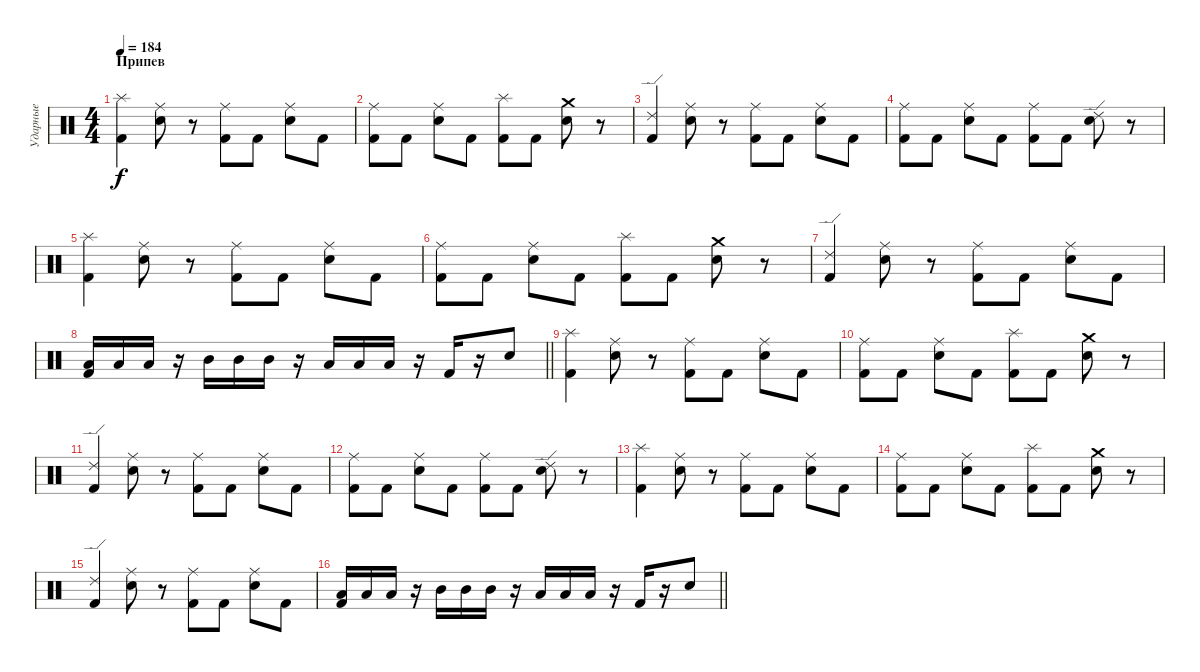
\track ("Ударные" "Ударные") {instrument percussion}
\staff {score}
\articulation defaults
\ts (4 4)
\section ("" "Припев")
\tempo 184
\clef neutral
\ks c
("Splash (hit)" "Kick (hit) 2").4{dy f} ("Ride (middle)" "Snare (hit) 2").8 r.8 ("Ride (middle)" "Kick (hit) 2").8 "Kick (hit) 2".8 ("Ride (middle)" "Snare (hit) 2").8 "Kick (hit) 2".8 |
("Ride (middle)" "Kick (hit) 2").8 "Kick (hit) 2".8 ("Ride (middle)" "Snare (hit) 2").8 "Kick (hit) 2".8 ("Splash (hit)" "Kick (hit) 2").8 "Kick (hit) 2".8 ("Crash medium (hit)" "Snare (hit) 2").8 r.8 |
("Ride (edge) 2" "Kick (hit) 2").4 ("Ride (middle)" "Snare (hit) 2").8 r.8 ("Ride (middle)" "Kick (hit) 2").8 "Kick (hit) 2".8 ("Ride (middle)" "Snare (hit) 2").8 "Kick (hit) 2".8 |
("Ride (middle)" "Kick (hit) 2").8 "Kick (hit) 2".8 ("Ride (middle)" "Snare (hit) 2").8 "Kick (hit) 2".8 ("Ride (middle)" "Kick (hit) 2").8 "Kick (hit) 2".8 ("Ride (edge) 2" "Snare (hit) 2").8 r.8 |
("Splash (hit)" "Kick (hit) 2").4 ("Ride (middle)" "Snare (hit) 2").8 r.8 ("Ride (middle)" "Kick (hit) 2").8 "Kick (hit) 2".8 ("Ride (middle)" "Snare (hit) 2").8 "Kick (hit) 2".8 |
("Ride (middle)" "Kick (hit) 2").8 "Kick (hit) 2".8 ("Ride (middle)" "Snare (hit) 2").8 "Kick (hit) 2".8 ("Splash (hit)" "Kick (hit) 2").8 "Kick (hit) 2".8 ("Crash medium (hit)" "Snare (hit) 2").8 r.8 |
("Ride (edge) 2" "Kick (hit) 2").4 ("Ride (middle)" "Snare (hit) 2").8 r.8 ("Ride (middle)" "Kick (hit) 2").8 "Kick (hit) 2".8 ("Ride (middle)" "Snare (hit) 2").8 "Kick (hit) 2".8 |
\barLineRight lightlight
("Low Floor Tom (hit)" "Kick (hit) 2").16 "Low Floor Tom (hit)".16 "Low Floor Tom (hit)".16 r.16 "Mid Tom (hit)".16 "Mid Tom (hit)".16 "Mid Tom (hit)".16 r.16 "Low Tom (hit)".16 "Low Tom (hit)".16 "Low Tom (hit)".16 r.16 "Kick (hit) 2".16 r.16 "Snare (hit) 2".8 |
("Splash (hit)" "Kick (hit) 2").4 ("Ride (middle)" "Snare (hit) 2").8 r.8 ("Ride (middle)" "Kick (hit) 2").8 "Kick (hit) 2".8 ("Ride (middle)" "Snare (hit) 2").8 "Kick (hit) 2".8 |
("Ride (middle)" "Kick (hit) 2").8 "Kick (hit) 2".8 ("Ride (middle)" "Snare (hit) 2").8 "Kick (hit) 2".8 ("Splash (hit)" "Kick (hit) 2").8 "Kick (hit) 2".8 ("Crash medium (hit)" "Snare (hit) 2").8 r.8 |
("Ride (edge) 2" "Kick (hit) 2").4 ("Ride (middle)" "Snare (hit) 2").8 r.8 ("Ride (middle)" "Kick (hit) 2").8 "Kick (hit) 2".8 ("Ride (middle)" "Snare (hit) 2").8 "Kick (hit) 2".8 |
("Ride (middle)" "Kick (hit) 2").8 "Kick (hit) 2".8 ("Ride (middle)" "Snare (hit) 2").8 "Kick (hit) 2".8 ("Ride (middle)" "Kick (hit) 2").8 "Kick (hit) 2".8 ("Ride (edge) 2" "Snare (hit) 2").8 r.8 |
("Splash (hit)" "Kick (hit) 2").4 ("Ride (middle)" "Snare (hit) 2").8 r.8 ("Ride (middle)" "Kick (hit) 2").8 "Kick (hit) 2".8 ("Ride (middle)" "Snare (hit) 2").8 "Kick (hit) 2".8 |
("Ride (middle)" "Kick (hit) 2").8 "Kick (hit) 2".8 ("Ride (middle)" "Snare (hit) 2").8 "Kick (hit) 2".8 ("Splash (hit)" "Kick (hit) 2").8 "Kick (hit) 2".8 ("Crash medium (hit)" "Snare (hit) 2").8 r.8 |
("Ride (edge) 2" "Kick (hit) 2").4 ("Ride (middle)" "Snare (hit) 2").8 r.8 ("Ride (middle)" "Kick (hit) 2").8 "Kick (hit) 2".8 ("Ride (middle)" "Snare (hit) 2").8 "Kick (hit) 2".8 |
\barLineRight lightlight
("Low Floor Tom (hit)" "Kick (hit) 2").16 "Low Floor Tom (hit)".16 "Low Floor Tom (hit)".16 r.16 "Mid Tom (hit)".16 "Mid Tom (hit)".16 "Mid Tom (hit)".16 r.16 "Low Tom (hit)".16 "Low Tom (hit)".16 "Low Tom (hit)".16 r.16 "Kick (hit) 2".16 r.16 "Snare (hit) 2".8
